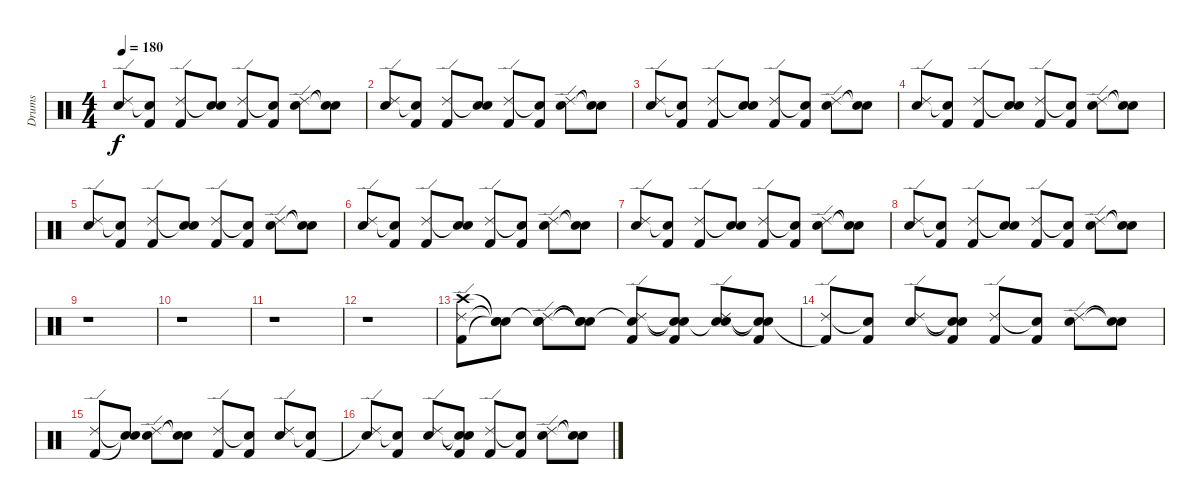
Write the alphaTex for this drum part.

\track ("Drums" "Drums") {instrument percussion}
\staff {score}
\articulation defaults
\ts (4 4)
\tempo 180
\clef neutral
\ks c
("Ride (edge) 2" "Electric Snare (hit)").8{dy f} ("Snare (hit)"{t} "Kick (hit) 2").8 ("Ride (edge) 2" "Kick (hit) 2").8 ("Snare (hit)"{t} "Electric Snare (hit)").8 ("Ride (edge) 2" "Kick (hit) 2").8 ("Snare (hit)"{t} "Kick (hit) 2").8 ("Ride (edge) 2" "Electric Snare (hit)").8 ("Snare (hit)"{t} "Snare (hit)"{t}).8 |
("Ride (edge) 2" "Electric Snare (hit)").8 ("Snare (hit)"{t} "Kick (hit) 2").8 ("Ride (edge) 2" "Kick (hit) 2").8 ("Snare (hit)"{t} "Electric Snare (hit)").8 ("Ride (edge) 2" "Kick (hit) 2").8 ("Snare (hit)"{t} "Kick (hit) 2").8 ("Ride (edge) 2" "Electric Snare (hit)").8 ("Snare (hit)"{t} "Snare (hit)"{t}).8 |
("Ride (edge) 2" "Electric Snare (hit)").8 ("Snare (hit)"{t} "Kick (hit) 2").8 ("Ride (edge) 2" "Kick (hit) 2").8 ("Snare (hit)"{t} "Electric Snare (hit)").8 ("Ride (edge) 2" "Kick (hit) 2").8 ("Snare (hit)"{t} "Kick (hit) 2").8 ("Ride (edge) 2" "Electric Snare (hit)").8 ("Snare (hit)"{t} "Snare (hit)"{t}).8 |
("Ride (edge) 2" "Electric Snare (hit)").8 ("Snare (hit)"{t} "Kick (hit) 2").8 ("Ride (edge) 2" "Kick (hit) 2").8 ("Snare (hit)"{t} "Electric Snare (hit)").8 ("Ride (edge) 2" "Kick (hit) 2").8 ("Snare (hit)"{t} "Kick (hit) 2").8 ("Ride (edge) 2" "Electric Snare (hit)").8 ("Snare (hit)"{t} "Snare (hit)"{t}).8 |
("Ride (edge) 2" "Electric Snare (hit)").8 ("Snare (hit)"{t} "Kick (hit) 2").8 ("Ride (edge) 2" "Kick (hit) 2").8 ("Snare (hit)"{t} "Electric Snare (hit)").8 ("Ride (edge) 2" "Kick (hit) 2").8 ("Snare (hit)"{t} "Kick (hit) 2").8 ("Ride (edge) 2" "Electric Snare (hit)").8 ("Snare (hit)"{t} "Snare (hit)"{t}).8 |
("Ride (edge) 2" "Electric Snare (hit)").8 ("Snare (hit)"{t} "Kick (hit) 2").8 ("Ride (edge) 2" "Kick (hit) 2").8 ("Snare (hit)"{t} "Electric Snare (hit)").8 ("Ride (edge) 2" "Kick (hit) 2").8 ("Snare (hit)"{t} "Kick (hit) 2").8 ("Ride (edge) 2" "Electric Snare (hit)").8 ("Snare (hit)"{t} "Snare (hit)"{t}).8 |
("Ride (edge) 2" "Electric Snare (hit)").8 ("Snare (hit)"{t} "Kick (hit) 2").8 ("Ride (edge) 2" "Kick (hit) 2").8 ("Snare (hit)"{t} "Electric Snare (hit)").8 ("Ride (edge) 2" "Kick (hit) 2").8 ("Snare (hit)"{t} "Kick (hit) 2").8 ("Ride (edge) 2" "Electric Snare (hit)").8 ("Snare (hit)"{t} "Snare (hit)"{t}).8 |
("Ride (edge) 2" "Electric Snare (hit)").8 ("Snare (hit)"{t} "Kick (hit) 2").8 ("Ride (edge) 2" "Kick (hit) 2").8 ("Snare (hit)"{t} "Electric Snare (hit)").8 ("Ride (edge) 2" "Kick (hit) 2").8 ("Snare (hit)"{t} "Kick (hit) 2").8 ("Ride (edge) 2" "Electric Snare (hit)").8 ("Snare (hit)"{t} "Snare (hit)"{t}).8 |
r.1 |
r.1 |
r.1 |
r.1 |
("Crash high (hit)" "Ride (edge) 2" "Kick (hit) 2").8 ("Snare (hit)"{t} "Snare (hit)"{t} "Snare (hit)"{t}).8 ("Snare (hit)"{t} "Ride (edge) 2" "Electric Snare (hit)").8 ("Snare (hit)"{t} "Snare (hit)"{t} "Snare (hit)"{t}).8 ("Snare (hit)"{t} "Ride (edge) 2" "Kick (hit) 2").8 ("Snare (hit)"{t} "Snare (hit)"{t} "Kick (hit) 2").8 ("Snare (hit)"{t} "Ride (edge) 2" "Electric Snare (hit)").8 ("Snare (hit)"{t} "Snare (hit)"{t} "Kick (hit) 2").8 |
("Ride (edge) 2" "Kick (hit) 2"{t}).8 ("Snare (hit)"{t} "Kick (hit) 2").8 ("Ride (edge) 2" "Electric Snare (hit)").8 ("Snare (hit)"{t} "Snare (hit)"{t} "Kick (hit) 2").8 ("Ride (edge) 2" "Kick (hit) 2").8 ("Snare (hit)"{t} "Kick (hit) 2").8 ("Ride (edge) 2" "Electric Snare (hit)").8 ("Snare (hit)"{t} "Snare (hit)"{t}).8 |
("Ride (edge) 2" "Kick (hit) 2").8 ("Snare (hit)"{t} "Snare (hit)"{t}).8 ("Ride (edge) 2" "Electric Snare (hit)").8 ("Snare (hit)"{t} "Snare (hit)"{t}).8 ("Ride (edge) 2" "Kick (hit) 2").8 ("Snare (hit)"{t} "Kick (hit) 2").8 ("Ride (edge) 2" "Electric Snare (hit)").8 ("Snare (hit)"{t} "Kick (hit) 2").8 |
("Ride (edge) 2" "Snare (hit)"{t}).8 ("Snare (hit)"{t} "Kick (hit) 2").8 ("Ride (edge) 2" "Electric Snare (hit)").8 ("Snare (hit)"{t} "Snare (hit)"{t} "Kick (hit) 2").8 ("Ride (edge) 2" "Kick (hit) 2").8 ("Snare (hit)"{t} "Kick (hit) 2").8 ("Ride (edge) 2" "Electric Snare (hit)").8 ("Snare (hit)"{t} "Snare (hit)"{t}).8
